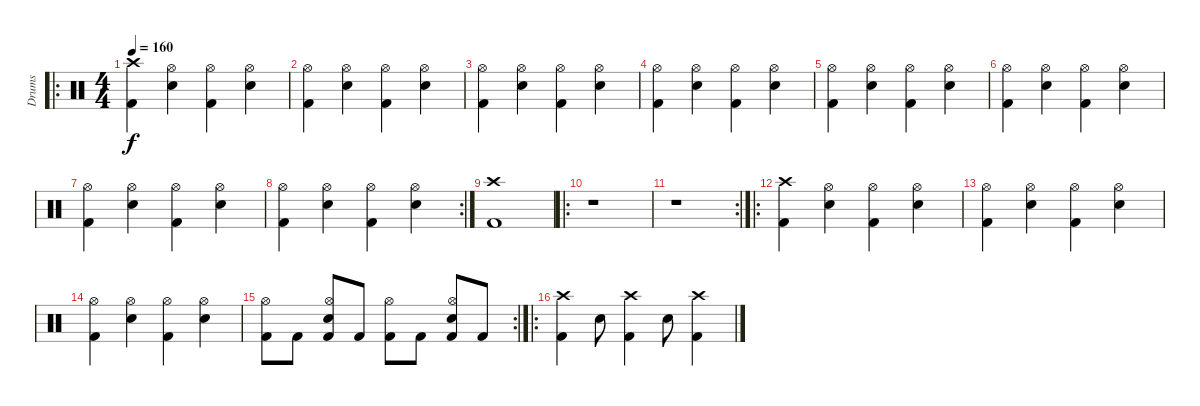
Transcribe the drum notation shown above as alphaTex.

\track ("Drums" "Drums") {instrument percussion}
\staff {score}
\articulation defaults
\ro
\ts (4 4)
\tempo 160
\clef neutral
\ks c
("Crash high (hit)" "Kick (hit) 2").4{dy f} ("Hi-Hat (open)" "Snare (hit) 2").4 ("Hi-Hat (open)" "Kick (hit) 2").4 ("Hi-Hat (open)" "Snare (hit) 2").4 |
("Hi-Hat (open)" "Kick (hit) 2").4 ("Hi-Hat (open)" "Snare (hit) 2").4 ("Hi-Hat (open)" "Kick (hit) 2").4 ("Hi-Hat (open)" "Snare (hit) 2").4 |
("Hi-Hat (open)" "Kick (hit) 2").4 ("Hi-Hat (open)" "Snare (hit) 2").4 ("Hi-Hat (open)" "Kick (hit) 2").4 ("Hi-Hat (open)" "Snare (hit) 2").4 |
("Hi-Hat (open)" "Kick (hit) 2").4 ("Hi-Hat (open)" "Snare (hit) 2").4 ("Hi-Hat (open)" "Kick (hit) 2").4 ("Hi-Hat (open)" "Snare (hit) 2").4 |
("Hi-Hat (open)" "Kick (hit) 2").4 ("Hi-Hat (open)" "Snare (hit) 2").4 ("Hi-Hat (open)" "Kick (hit) 2").4 ("Hi-Hat (open)" "Snare (hit) 2").4 |
("Hi-Hat (open)" "Kick (hit) 2").4 ("Hi-Hat (open)" "Snare (hit) 2").4 ("Hi-Hat (open)" "Kick (hit) 2").4 ("Hi-Hat (open)" "Snare (hit) 2").4 |
("Hi-Hat (open)" "Kick (hit) 2").4 ("Hi-Hat (open)" "Snare (hit) 2").4 ("Hi-Hat (open)" "Kick (hit) 2").4 ("Hi-Hat (open)" "Snare (hit) 2").4 |
\rc 2
("Hi-Hat (open)" "Kick (hit) 2").4 ("Hi-Hat (open)" "Snare (hit) 2").4 ("Hi-Hat (open)" "Kick (hit) 2").4 ("Hi-Hat (open)" "Snare (hit) 2").4 |
("Crash high (hit)" "Kick (hit) 2").1 |
\ro
r.1 |
\rc 2
r.1 |
\ro
("Crash high (hit)" "Kick (hit) 2").4 ("Hi-Hat (open)" "Snare (hit) 2").4 ("Hi-Hat (open)" "Kick (hit) 2").4 ("Hi-Hat (open)" "Snare (hit) 2").4 |
("Hi-Hat (open)" "Kick (hit) 2").4 ("Hi-Hat (open)" "Snare (hit) 2").4 ("Hi-Hat (open)" "Kick (hit) 2").4 ("Hi-Hat (open)" "Snare (hit) 2").4 |
("Hi-Hat (open)" "Kick (hit) 2").4 ("Hi-Hat (open)" "Snare (hit) 2").4 ("Hi-Hat (open)" "Kick (hit) 2").4 ("Hi-Hat (open)" "Snare (hit) 2").4 |
\rc 2
("Hi-Hat (open)" "Kick (hit) 2").8 "Kick (hit) 2".8 ("Hi-Hat (open)" "Snare (hit) 2" "Kick (hit) 2").8 "Kick (hit) 2".8 ("Hi-Hat (open)" "Kick (hit) 2").8 "Kick (hit) 2".8 ("Hi-Hat (open)" "Snare (hit) 2" "Kick (hit) 2").8 "Kick (hit) 2".8 |
\ro
("Crash high (hit)" "Kick (hit) 2").4 "Snare (hit) 2".8 ("Crash high (hit)" "Kick (hit) 2").4 "Snare (hit) 2".8 ("Crash high (hit)" "Kick (hit) 2").4
